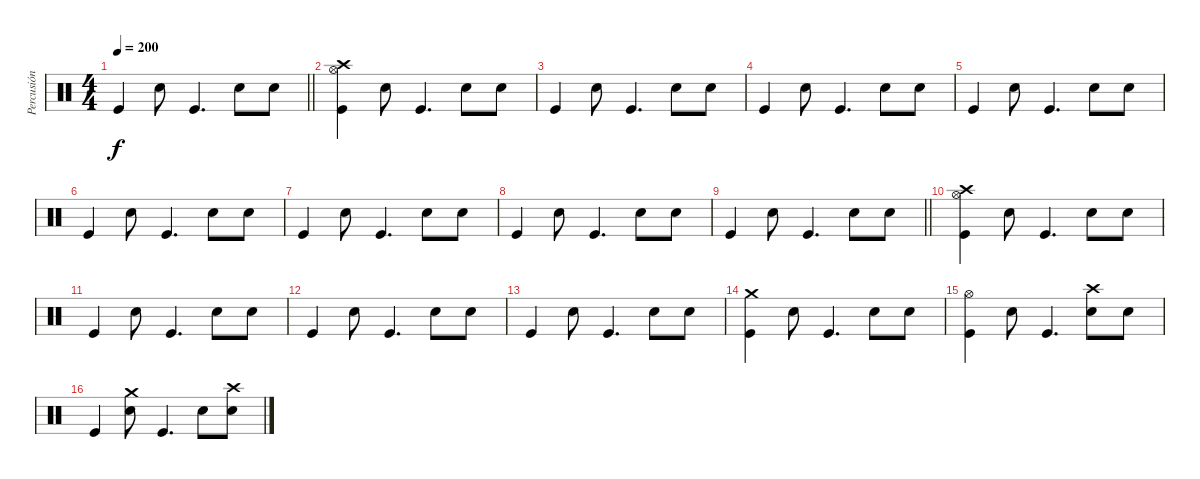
\track ("Percusión" "Percusión") {instrument percussion}
\staff {score}
\articulation defaults
\ts (4 4)
\tempo 200
\clef neutral
\barLineRight lightlight
\ks c "Kick (hit)".4{dy f} "Snare (hit) 2".8 "Kick (hit)".4{d} "Snare (hit) 2".8 "Snare (hit) 2".8
|
\section ("" "")
("Hi-Hat (open)" "Crash high (hit)" "Kick (hit)").4 "Snare (hit) 2".8 "Kick (hit)".4{d} "Snare (hit) 2".8 "Snare (hit) 2".8 |
"Kick (hit)".4 "Snare (hit) 2".8 "Kick (hit)".4{d} "Snare (hit) 2".8 "Snare (hit) 2".8 |
"Kick (hit)".4 "Snare (hit) 2".8 "Kick (hit)".4{d} "Snare (hit) 2".8 "Snare (hit) 2".8 |
"Kick (hit)".4 "Snare (hit) 2".8 "Kick (hit)".4{d} "Snare (hit) 2".8 "Snare (hit) 2".8 |
"Kick (hit)".4 "Snare (hit) 2".8 "Kick (hit)".4{d} "Snare (hit) 2".8 "Snare (hit) 2".8 |
"Kick (hit)".4 "Snare (hit) 2".8 "Kick (hit)".4{d} "Snare (hit) 2".8 "Snare (hit) 2".8 |
"Kick (hit)".4 "Snare (hit) 2".8 "Kick (hit)".4{d} "Snare (hit) 2".8 "Snare (hit) 2".8 |
\barLineRight lightlight "Kick (hit)".4 "Snare (hit) 2".8 "Kick (hit)".4{d} "Snare (hit) 2".8 "Snare (hit) 2".8
|
\section ("" "")
("Hi-Hat (open)" "Crash high (hit)" "Kick (hit)").4 "Snare (hit) 2".8 "Kick (hit)".4{d} "Snare (hit) 2".8 "Snare (hit) 2".8 |
"Kick (hit)".4 "Snare (hit) 2".8 "Kick (hit)".4{d} "Snare (hit) 2".8 "Snare (hit) 2".8 |
"Kick (hit)".4 "Snare (hit) 2".8 "Kick (hit)".4{d} "Snare (hit) 2".8 "Snare (hit) 2".8 |
"Kick (hit)".4 "Snare (hit) 2".8 "Kick (hit)".4{d} "Snare (hit) 2".8 "Snare (hit) 2".8 |
("Crash medium (hit)" "Kick (hit)").4 "Snare (hit) 2".8 "Kick (hit)".4{d} "Snare (hit) 2".8 "Snare (hit) 2".8 |
("Hi-Hat (open)" "Kick (hit)").4 "Snare (hit) 2".8 "Kick (hit)".4{d} ("Crash high (hit)" "Snare (hit) 2").8 "Snare (hit) 2".8 |
"Kick (hit)".4 ("Crash medium (hit)" "Snare (hit) 2").8 "Kick (hit)".4{d} "Snare (hit) 2".8 ("Crash high (hit)" "Snare (hit) 2").8
